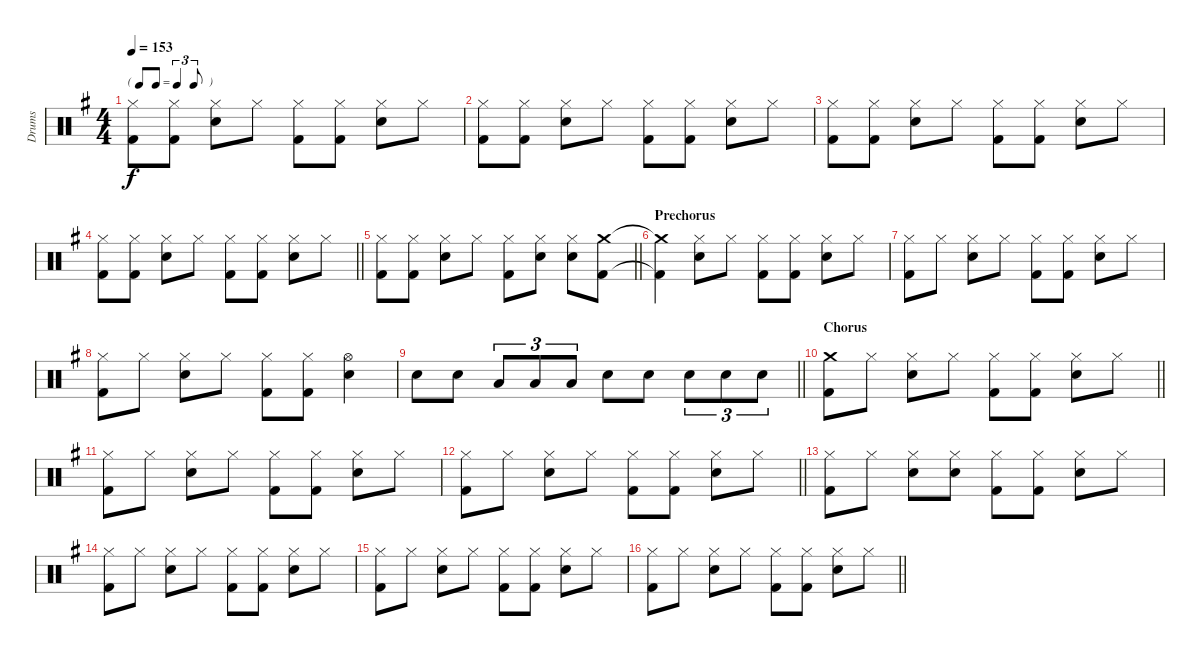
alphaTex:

\track ("Drums" "Drums") {instrument percussion}
\staff {score}
\articulation defaults
\ts (4 4)
\tf triplet8th
\tempo 153
\clef neutral
\ks g
("Hi-Hat (closed)" "Kick (hit) 2").8{dy f} ("Hi-Hat (closed)" "Kick (hit) 2").8 ("Hi-Hat (closed)" "Electric Snare (hit)").8 "Hi-Hat (closed)".8 ("Hi-Hat (closed)" "Kick (hit) 2").8 ("Hi-Hat (closed)" "Kick (hit) 2").8 ("Hi-Hat (closed)" "Electric Snare (hit)").8 "Hi-Hat (closed)".8 |
("Hi-Hat (closed)" "Kick (hit) 2").8 ("Hi-Hat (closed)" "Kick (hit) 2").8 ("Hi-Hat (closed)" "Electric Snare (hit)").8 "Hi-Hat (closed)".8 ("Hi-Hat (closed)" "Kick (hit) 2").8 ("Hi-Hat (closed)" "Kick (hit) 2").8 ("Hi-Hat (closed)" "Electric Snare (hit)").8 "Hi-Hat (closed)".8 |
("Hi-Hat (closed)" "Kick (hit) 2").8 ("Hi-Hat (closed)" "Kick (hit) 2").8 ("Hi-Hat (closed)" "Electric Snare (hit)").8 "Hi-Hat (closed)".8 ("Hi-Hat (closed)" "Kick (hit) 2").8 ("Hi-Hat (closed)" "Kick (hit) 2").8 ("Hi-Hat (closed)" "Electric Snare (hit)").8 "Hi-Hat (closed)".8 |
\barLineRight lightlight
("Hi-Hat (closed)" "Kick (hit) 2").8 ("Hi-Hat (closed)" "Kick (hit) 2").8 ("Hi-Hat (closed)" "Electric Snare (hit)").8 "Hi-Hat (closed)".8 ("Hi-Hat (closed)" "Kick (hit) 2").8 ("Hi-Hat (closed)" "Kick (hit) 2").8 ("Hi-Hat (closed)" "Electric Snare (hit)").8 "Hi-Hat (closed)".8 |
\barLineRight lightlight
("Hi-Hat (closed)" "Kick (hit) 2").8 ("Hi-Hat (closed)" "Kick (hit) 2").8 ("Hi-Hat (closed)" "Electric Snare (hit)").8 "Hi-Hat (closed)".8 ("Hi-Hat (closed)" "Kick (hit) 2").8 ("Hi-Hat (closed)" "Electric Snare (hit)").8 ("Hi-Hat (closed)" "Electric Snare (hit)").8 ("Crash medium (hit)" "Kick (hit) 2").8 |
\section ("" "Prechorus")
("Crash medium (hit)"{t} "Kick (hit) 2"{t}).4 ("Hi-Hat (closed)" "Electric Snare (hit)").8 "Hi-Hat (closed)".8 ("Hi-Hat (closed)" "Kick (hit) 2").8 ("Hi-Hat (closed)" "Kick (hit) 2").8 ("Hi-Hat (closed)" "Electric Snare (hit)").8 "Hi-Hat (closed)".8 |
("Hi-Hat (closed)" "Kick (hit) 2").8 "Hi-Hat (closed)".8 ("Hi-Hat (closed)" "Electric Snare (hit)").8 "Hi-Hat (closed)".8 ("Hi-Hat (closed)" "Kick (hit) 2").8 ("Hi-Hat (closed)" "Kick (hit) 2").8 ("Hi-Hat (closed)" "Electric Snare (hit)").8 "Hi-Hat (closed)".8 |
("Hi-Hat (closed)" "Kick (hit) 2").8 "Hi-Hat (closed)".8 ("Hi-Hat (closed)" "Electric Snare (hit)").8 "Hi-Hat (closed)".8 ("Hi-Hat (closed)" "Kick (hit) 2").8 ("Hi-Hat (closed)" "Kick (hit) 2").8 ("Hi-Hat (open)" "Electric Snare (hit)").4 |
\barLineRight lightlight "Electric Snare (hit)".8 "Electric Snare (hit)".8 "Low Tom (hit)".8{tu (3 2)} "Low Tom (hit)".8{tu (3 2)} "Low Tom (hit)".8{tu (3 2)} "Electric Snare (hit)".8 "Electric Snare (hit)".8 "Electric Snare (hit)".8{tu (3 2)} "Electric Snare (hit)".8{tu (3 2)} "Electric Snare (hit)".8{tu (3 2)}
|
\section ("" "Chorus")
\barLineRight lightlight
("Crash medium (hit)" "Kick (hit) 2").8 "Hi-Hat (closed)".8 ("Hi-Hat (closed)" "Electric Snare (hit)").8 "Hi-Hat (closed)".8 ("Hi-Hat (closed)" "Kick (hit) 2").8 ("Hi-Hat (closed)" "Kick (hit) 2").8 ("Hi-Hat (closed)" "Electric Snare (hit)").8 "Hi-Hat (closed)".8 |
("Hi-Hat (closed)" "Kick (hit) 2").8 "Hi-Hat (closed)".8 ("Hi-Hat (closed)" "Electric Snare (hit)").8 "Hi-Hat (closed)".8 ("Hi-Hat (closed)" "Kick (hit) 2").8 ("Hi-Hat (closed)" "Kick (hit) 2").8 ("Hi-Hat (closed)" "Electric Snare (hit)").8 "Hi-Hat (closed)".8 |
\barLineRight lightlight
("Hi-Hat (closed)" "Kick (hit) 2").8 "Hi-Hat (closed)".8 ("Hi-Hat (closed)" "Electric Snare (hit)").8 "Hi-Hat (closed)".8 ("Hi-Hat (closed)" "Kick (hit) 2").8 ("Hi-Hat (closed)" "Kick (hit) 2").8 ("Hi-Hat (closed)" "Electric Snare (hit)").8 "Hi-Hat (closed)".8 |
("Hi-Hat (closed)" "Kick (hit) 2").8 "Hi-Hat (closed)".8 ("Hi-Hat (closed)" "Electric Snare (hit)").8 ("Hi-Hat (closed)" "Electric Snare (hit)").8 ("Hi-Hat (closed)" "Kick (hit) 2").8 ("Hi-Hat (closed)" "Kick (hit) 2").8 ("Hi-Hat (closed)" "Electric Snare (hit)").8 "Hi-Hat (closed)".8 |
("Hi-Hat (closed)" "Kick (hit) 2").8 "Hi-Hat (closed)".8 ("Hi-Hat (closed)" "Electric Snare (hit)").8 "Hi-Hat (closed)".8 ("Hi-Hat (closed)" "Kick (hit) 2").8 ("Hi-Hat (closed)" "Kick (hit) 2").8 ("Hi-Hat (closed)" "Electric Snare (hit)").8 "Hi-Hat (closed)".8 |
("Hi-Hat (closed)" "Kick (hit) 2").8 "Hi-Hat (closed)".8 ("Hi-Hat (closed)" "Electric Snare (hit)").8 "Hi-Hat (closed)".8 ("Hi-Hat (closed)" "Kick (hit) 2").8 ("Hi-Hat (closed)" "Kick (hit) 2").8 ("Hi-Hat (closed)" "Electric Snare (hit)").8 "Hi-Hat (closed)".8 |
\barLineRight lightlight
("Hi-Hat (closed)" "Kick (hit) 2").8 "Hi-Hat (closed)".8 ("Hi-Hat (closed)" "Electric Snare (hit)").8 "Hi-Hat (closed)".8 ("Hi-Hat (closed)" "Kick (hit) 2").8 ("Hi-Hat (closed)" "Kick (hit) 2").8 ("Hi-Hat (closed)" "Electric Snare (hit)").8 "Hi-Hat (closed)".8
